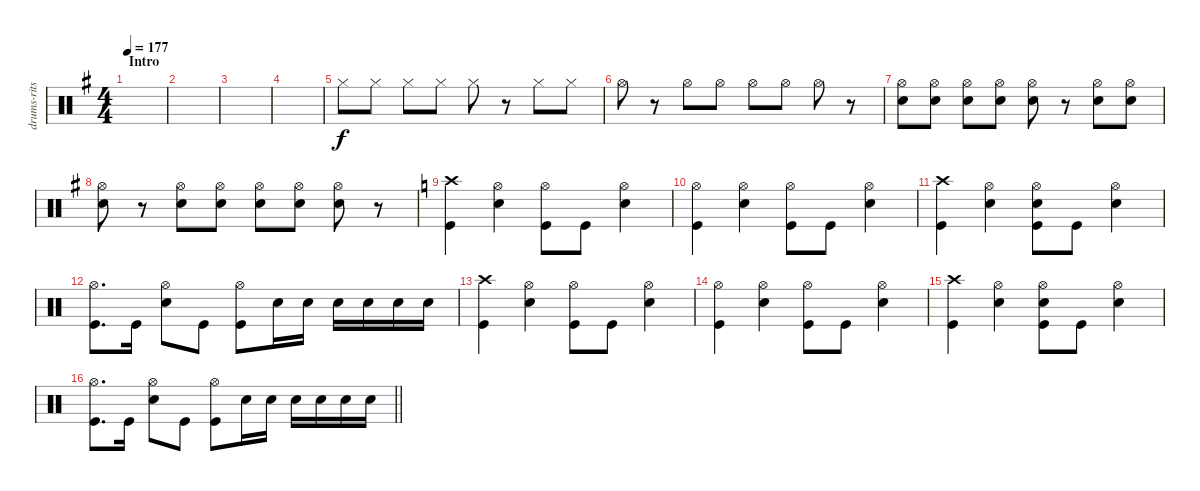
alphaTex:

\track ("drums-ritsu takana" "drums-rits") {instrument percussion}
\staff {score}
\articulation defaults
\ts (4 4)
\section ("" "Intro")
\tempo 177
\clef neutral
\ks eminor
|
|
|
|
"Hi-Hat (closed)".8 "Hi-Hat (closed)".8 "Hi-Hat (closed)".8 "Hi-Hat (closed)".8 "Hi-Hat (closed)".8 r.8 "Hi-Hat (closed)".8 "Hi-Hat (closed)".8 |
"Hi-Hat (open)".8 r.8 "Hi-Hat (open)".8 "Hi-Hat (open)".8 "Hi-Hat (open)".8 "Hi-Hat (open)".8 "Hi-Hat (open)".8 r.8 |
("Hi-Hat (open)" "Snare (hit) 2").8 ("Hi-Hat (open)" "Snare (hit) 2").8 ("Hi-Hat (open)" "Snare (hit) 2").8 ("Hi-Hat (open)" "Snare (hit) 2").8 ("Hi-Hat (open)" "Snare (hit) 2").8 r.8 ("Hi-Hat (open)" "Snare (hit) 2").8 ("Hi-Hat (open)" "Snare (hit) 2").8 |
("Hi-Hat (open)" "Snare (hit) 2").8 r.8 ("Hi-Hat (open)" "Snare (hit) 2").8 ("Hi-Hat (open)" "Snare (hit) 2").8 ("Hi-Hat (open)" "Snare (hit) 2").8 ("Hi-Hat (open)" "Snare (hit) 2").8 ("Hi-Hat (open)" "Snare (hit) 2").8 r.8 |
\ks c
("Crash high (hit)" "Kick (hit)").4 ("Hi-Hat (open)" "Snare (hit) 2").4 ("Hi-Hat (open)" "Kick (hit)").8 "Kick (hit)".8 ("Hi-Hat (open)" "Snare (hit) 2").4 |
("Hi-Hat (open)" "Kick (hit)").4 ("Hi-Hat (open)" "Snare (hit) 2").4 ("Hi-Hat (open)" "Kick (hit)").8 "Kick (hit)".8 ("Hi-Hat (open)" "Snare (hit) 2").4 |
("Crash high (hit)" "Kick (hit)").4 ("Hi-Hat (open)" "Snare (hit) 2").4 ("Hi-Hat (open)" "Snare (hit) 2" "Kick (hit)").8 "Kick (hit)".8 ("Hi-Hat (open)" "Snare (hit) 2").4 |
("Hi-Hat (open)" "Kick (hit)").8{d} "Kick (hit)".16 ("Hi-Hat (open)" "Snare (hit) 2").8 "Kick (hit)".8 ("Hi-Hat (open)" "Kick (hit)").8 "Snare (hit) 2".16 "Snare (hit) 2".16 "Snare (hit) 2".16 "Snare (hit) 2".16 "Snare (hit) 2".16 "Snare (hit) 2".16 |
("Crash high (hit)" "Kick (hit)").4 ("Hi-Hat (open)" "Snare (hit) 2").4 ("Hi-Hat (open)" "Kick (hit)").8 "Kick (hit)".8 ("Hi-Hat (open)" "Snare (hit) 2").4 |
("Hi-Hat (open)" "Kick (hit)").4 ("Hi-Hat (open)" "Snare (hit) 2").4 ("Hi-Hat (open)" "Kick (hit)").8 "Kick (hit)".8 ("Hi-Hat (open)" "Snare (hit) 2").4 |
("Crash high (hit)" "Kick (hit)").4 ("Hi-Hat (open)" "Snare (hit) 2").4 ("Hi-Hat (open)" "Snare (hit) 2" "Kick (hit)").8 "Kick (hit)".8 ("Hi-Hat (open)" "Snare (hit) 2").4 |
\barLineRight lightlight
("Hi-Hat (open)" "Kick (hit)").8{d} "Kick (hit)".16 ("Hi-Hat (open)" "Snare (hit) 2").8 "Kick (hit)".8 ("Hi-Hat (open)" "Kick (hit)").8 "Snare (hit) 2".16 "Snare (hit) 2".16 "Snare (hit) 2".16 "Snare (hit) 2".16 "Snare (hit) 2".16 "Snare (hit) 2".16
